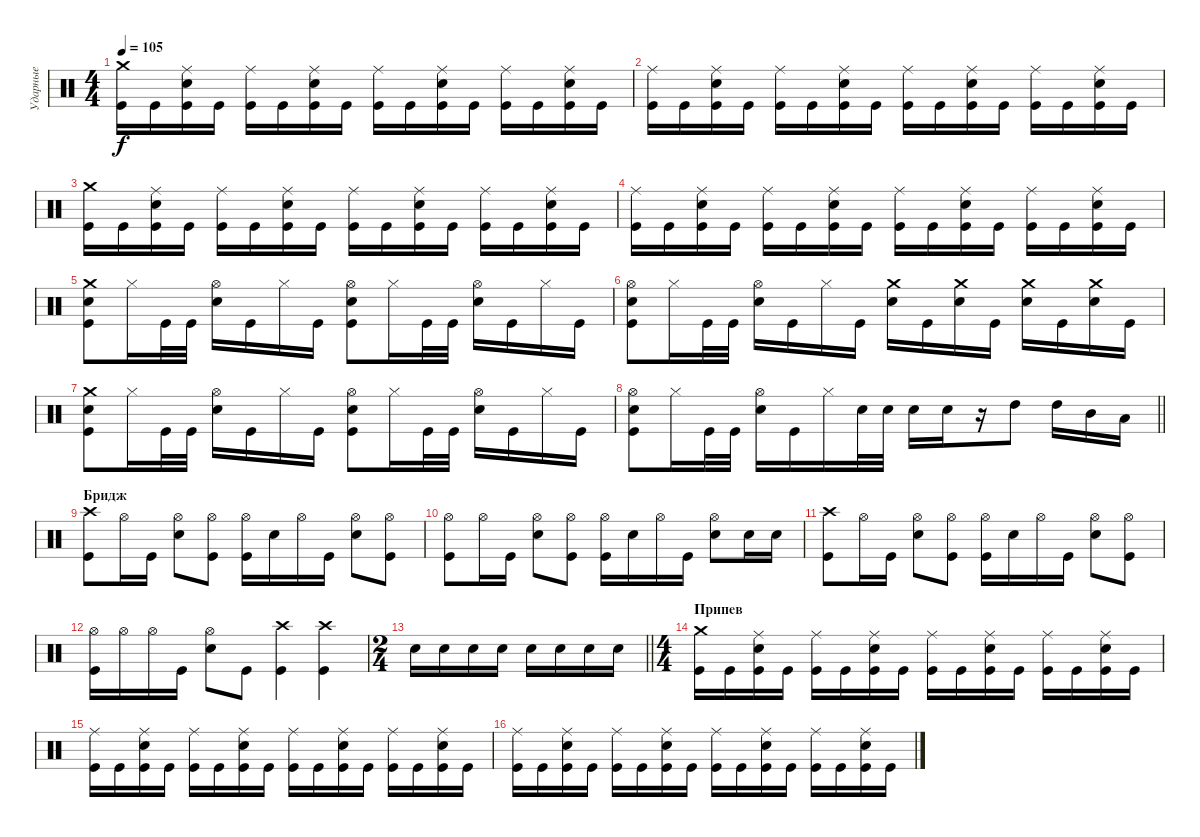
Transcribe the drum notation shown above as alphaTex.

\track ("Ударные" "Ударные") {instrument percussion}
\staff {score}
\articulation defaults
\ts (4 4)
\tempo 105
\clef neutral
\ks c
("Kick (hit)" "Crash medium (hit)").16{dy f} "Kick (hit)".16 ("Kick (hit)" "Snare (hit) 2" "Ride (middle)").16 "Kick (hit)".16 ("Kick (hit)" "Ride (middle)").16 "Kick (hit)".16 ("Kick (hit)" "Snare (hit) 2" "Ride (middle)").16 "Kick (hit)".16 ("Kick (hit)" "Ride (middle)").16 "Kick (hit)".16 ("Kick (hit)" "Snare (hit) 2" "Ride (middle)").16 "Kick (hit)".16 ("Kick (hit)" "Ride (middle)").16 "Kick (hit)".16 ("Kick (hit)" "Snare (hit) 2" "Ride (middle)").16 "Kick (hit)".16 |
("Kick (hit)" "Ride (middle)").16 "Kick (hit)".16 ("Kick (hit)" "Snare (hit) 2" "Ride (middle)").16 "Kick (hit)".16 ("Kick (hit)" "Ride (middle)").16 "Kick (hit)".16 ("Kick (hit)" "Snare (hit) 2" "Ride (middle)").16 "Kick (hit)".16 ("Kick (hit)" "Ride (middle)").16 "Kick (hit)".16 ("Kick (hit)" "Snare (hit) 2" "Ride (middle)").16 "Kick (hit)".16 ("Kick (hit)" "Ride (middle)").16 "Kick (hit)".16 ("Kick (hit)" "Snare (hit) 2" "Ride (middle)").16 "Kick (hit)".16 |
("Kick (hit)" "Crash medium (hit)").16 "Kick (hit)".16 ("Kick (hit)" "Snare (hit) 2" "Ride (middle)").16 "Kick (hit)".16 ("Kick (hit)" "Ride (middle)").16 "Kick (hit)".16 ("Kick (hit)" "Snare (hit) 2" "Ride (middle)").16 "Kick (hit)".16 ("Kick (hit)" "Ride (middle)").16 "Kick (hit)".16 ("Kick (hit)" "Snare (hit) 2" "Ride (middle)").16 "Kick (hit)".16 ("Kick (hit)" "Ride (middle)").16 "Kick (hit)".16 ("Kick (hit)" "Snare (hit) 2" "Ride (middle)").16 "Kick (hit)".16 |
("Kick (hit)" "Ride (middle)").16 "Kick (hit)".16 ("Kick (hit)" "Snare (hit) 2" "Ride (middle)").16 "Kick (hit)".16 ("Kick (hit)" "Ride (middle)").16 "Kick (hit)".16 ("Kick (hit)" "Snare (hit) 2" "Ride (middle)").16 "Kick (hit)".16 ("Kick (hit)" "Ride (middle)").16 "Kick (hit)".16 ("Kick (hit)" "Snare (hit) 2" "Ride (middle)").16 "Kick (hit)".16 ("Kick (hit)" "Ride (middle)").16 "Kick (hit)".16 ("Kick (hit)" "Snare (hit) 2" "Ride (middle)").16 "Kick (hit)".16 |
("Kick (hit)" "Snare (hit) 2" "Crash medium (hit)").8 "Hi-Hat (closed)".16 "Kick (hit)".32 "Kick (hit)".32 ("Snare (hit) 2" "Hi-Hat (open)").16 "Kick (hit)".16 "Hi-Hat (closed)".16 "Kick (hit)".16 ("Kick (hit)" "Snare (hit) 2" "Hi-Hat (open)").8 "Hi-Hat (closed)".16 "Kick (hit)".32 "Kick (hit)".32 ("Snare (hit) 2" "Hi-Hat (open)").16 "Kick (hit)".16 "Hi-Hat (closed)".16 "Kick (hit)".16 |
("Kick (hit)" "Snare (hit) 2" "Hi-Hat (open)").8 "Hi-Hat (closed)".16 "Kick (hit)".32 "Kick (hit)".32 ("Snare (hit) 2" "Hi-Hat (open)").16 "Kick (hit)".16 "Hi-Hat (closed)".16 "Kick (hit)".16 ("Snare (hit) 2" "Crash medium (hit)").16 "Kick (hit)".16 ("Snare (hit) 2" "Crash medium (hit)").16 "Kick (hit)".16 ("Snare (hit) 2" "Crash medium (hit)").16 "Kick (hit)".16 ("Snare (hit) 2" "Crash medium (hit)").16 "Kick (hit)".16 |
("Kick (hit)" "Snare (hit) 2" "Crash medium (hit)").8 "Hi-Hat (closed)".16 "Kick (hit)".32 "Kick (hit)".32 ("Snare (hit) 2" "Hi-Hat (open)").16 "Kick (hit)".16 "Hi-Hat (closed)".16 "Kick (hit)".16 ("Kick (hit)" "Snare (hit) 2" "Hi-Hat (open)").8 "Hi-Hat (closed)".16 "Kick (hit)".32 "Kick (hit)".32 ("Snare (hit) 2" "Hi-Hat (open)").16 "Kick (hit)".16 "Hi-Hat (closed)".16 "Kick (hit)".16 |
\barLineRight lightlight
("Kick (hit)" "Snare (hit) 2" "Hi-Hat (open)").8 "Hi-Hat (closed)".16 "Kick (hit)".32 "Kick (hit)".32 ("Snare (hit) 2" "Hi-Hat (open)").16 "Kick (hit)".16 "Hi-Hat (closed)".16 "Snare (hit) 2".32 "Snare (hit) 2".32 "Snare (hit) 2".16 "Snare (hit) 2".16 r.16 "High Tom (hit)".8 "High Tom (hit)".16 "Mid Tom (hit)".16 "Low Tom (hit)".16 |
\section ("" "Бридж")
("Kick (hit)" "Crash high (hit)").8 "Hi-Hat (open)".16 "Kick (hit)".16 ("Snare (hit) 2" "Hi-Hat (open)").8 ("Kick (hit)" "Hi-Hat (open)").8 ("Kick (hit)" "Hi-Hat (open)").16 "Snare (hit) 2".16 "Hi-Hat (open)".16 "Kick (hit)".16 ("Snare (hit) 2" "Hi-Hat (open)").8 ("Kick (hit)" "Hi-Hat (open)").8 |
("Kick (hit)" "Hi-Hat (open)").8 "Hi-Hat (open)".16 "Kick (hit)".16 ("Snare (hit) 2" "Hi-Hat (open)").8 ("Kick (hit)" "Hi-Hat (open)").8 ("Kick (hit)" "Hi-Hat (open)").16 "Snare (hit) 2".16 "Hi-Hat (open)".16 "Kick (hit)".16 ("Snare (hit) 2" "Hi-Hat (open)").8 "Snare (hit) 2".16 "Snare (hit) 2".16 |
("Kick (hit)" "Crash high (hit)").8 "Hi-Hat (open)".16 "Kick (hit)".16 ("Snare (hit) 2" "Hi-Hat (open)").8 ("Kick (hit)" "Hi-Hat (open)").8 ("Kick (hit)" "Hi-Hat (open)").16 "Snare (hit) 2".16 "Hi-Hat (open)".16 "Kick (hit)".16 ("Snare (hit) 2" "Hi-Hat (open)").8 ("Kick (hit)" "Hi-Hat (open)").8 |
("Kick (hit)" "Hi-Hat (open)").16 "Hi-Hat (open)".16 "Hi-Hat (open)".16 "Kick (hit)".16 ("Snare (hit) 2" "Hi-Hat (open)").8 "Kick (hit)".8 ("Kick (hit)" "Crash high (hit)").4 ("Kick (hit)" "Crash high (hit)").4 |
\ts (2 4)
\barLineRight lightlight "Snare (hit) 2".16 "Snare (hit) 2".16 "Snare (hit) 2".16 "Snare (hit) 2".16 "Snare (hit) 2".16 "Snare (hit) 2".16 "Snare (hit) 2".16 "Snare (hit) 2".16
|
\ts (4 4)
\section ("" "Припев")
("Kick (hit)" "Crash medium (hit)").16 "Kick (hit)".16 ("Kick (hit)" "Snare (hit) 2" "Ride (middle)").16 "Kick (hit)".16 ("Kick (hit)" "Ride (middle)").16 "Kick (hit)".16 ("Kick (hit)" "Snare (hit) 2" "Ride (middle)").16 "Kick (hit)".16 ("Kick (hit)" "Ride (middle)").16 "Kick (hit)".16 ("Kick (hit)" "Snare (hit) 2" "Ride (middle)").16 "Kick (hit)".16 ("Kick (hit)" "Ride (middle)").16 "Kick (hit)".16 ("Kick (hit)" "Snare (hit) 2" "Ride (middle)").16 "Kick (hit)".16 |
("Kick (hit)" "Ride (middle)").16 "Kick (hit)".16 ("Kick (hit)" "Snare (hit) 2" "Ride (middle)").16 "Kick (hit)".16 ("Kick (hit)" "Ride (middle)").16 "Kick (hit)".16 ("Kick (hit)" "Snare (hit) 2" "Ride (middle)").16 "Kick (hit)".16 ("Kick (hit)" "Ride (middle)").16 "Kick (hit)".16 ("Kick (hit)" "Snare (hit) 2" "Ride (middle)").16 "Kick (hit)".16 ("Kick (hit)" "Ride (middle)").16 "Kick (hit)".16 ("Kick (hit)" "Snare (hit) 2" "Ride (middle)").16 "Kick (hit)".16 |
("Kick (hit)" "Ride (middle)").16 "Kick (hit)".16 ("Kick (hit)" "Snare (hit) 2" "Ride (middle)").16 "Kick (hit)".16 ("Kick (hit)" "Ride (middle)").16 "Kick (hit)".16 ("Kick (hit)" "Snare (hit) 2" "Ride (middle)").16 "Kick (hit)".16 ("Kick (hit)" "Ride (middle)").16 "Kick (hit)".16 ("Kick (hit)" "Snare (hit) 2" "Ride (middle)").16 "Kick (hit)".16 ("Kick (hit)" "Ride (middle)").16 "Kick (hit)".16 ("Kick (hit)" "Snare (hit) 2" "Ride (middle)").16 "Kick (hit)".16
